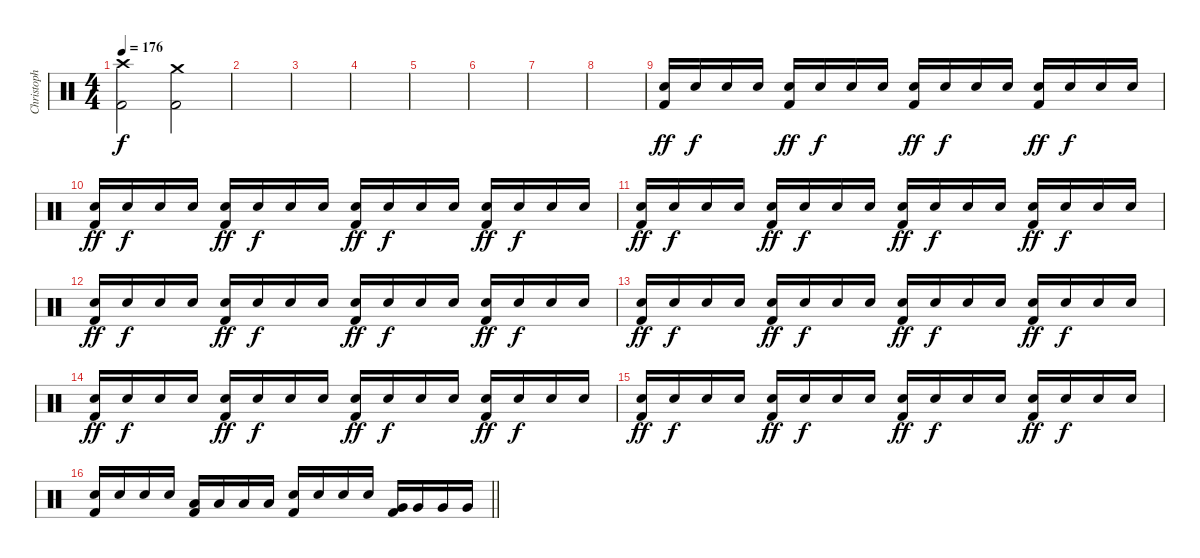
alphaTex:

\track ("Christoph" "Christoph") {instrument percussion}
\staff {score}
\articulation defaults
\ts (4 4)
\tempo 176
\clef neutral
\ks c
("Crash high (hit)" "Kick (hit) 2").2{dy f} ("Crash medium (hit)" "Kick (hit) 2").2 |
|
|
|
|
|
|
|
("Snare (hit) 2" "Kick (hit) 2").16{dy ff volume 7} "Snare (hit) 2".16{dy f} "Snare (hit) 2".16 "Snare (hit) 2".16 ("Snare (hit) 2" "Kick (hit) 2").16{dy ff} "Snare (hit) 2".16{dy f} "Snare (hit) 2".16 "Snare (hit) 2".16 ("Snare (hit) 2" "Kick (hit) 2").16{dy ff} "Snare (hit) 2".16{dy f} "Snare (hit) 2".16 "Snare (hit) 2".16 ("Snare (hit) 2" "Kick (hit) 2").16{dy ff} "Snare (hit) 2".16{dy f} "Snare (hit) 2".16 "Snare (hit) 2".16 |
("Snare (hit) 2" "Kick (hit) 2").16{dy ff volume 9} "Snare (hit) 2".16{dy f} "Snare (hit) 2".16 "Snare (hit) 2".16 ("Snare (hit) 2" "Kick (hit) 2").16{dy ff} "Snare (hit) 2".16{dy f} "Snare (hit) 2".16 "Snare (hit) 2".16 ("Snare (hit) 2" "Kick (hit) 2").16{dy ff} "Snare (hit) 2".16{dy f} "Snare (hit) 2".16 "Snare (hit) 2".16 ("Snare (hit) 2" "Kick (hit) 2").16{dy ff} "Snare (hit) 2".16{dy f} "Snare (hit) 2".16 "Snare (hit) 2".16 |
("Snare (hit) 2" "Kick (hit) 2").16{dy ff} "Snare (hit) 2".16{dy f} "Snare (hit) 2".16 "Snare (hit) 2".16 ("Snare (hit) 2" "Kick (hit) 2").16{dy ff} "Snare (hit) 2".16{dy f} "Snare (hit) 2".16 "Snare (hit) 2".16 ("Snare (hit) 2" "Kick (hit) 2").16{dy ff} "Snare (hit) 2".16{dy f} "Snare (hit) 2".16 "Snare (hit) 2".16 ("Snare (hit) 2" "Kick (hit) 2").16{dy ff} "Snare (hit) 2".16{dy f} "Snare (hit) 2".16 "Snare (hit) 2".16 |
("Snare (hit) 2" "Kick (hit) 2").16{dy ff volume 11} "Snare (hit) 2".16{dy f} "Snare (hit) 2".16 "Snare (hit) 2".16 ("Snare (hit) 2" "Kick (hit) 2").16{dy ff} "Snare (hit) 2".16{dy f} "Snare (hit) 2".16 "Snare (hit) 2".16 ("Snare (hit) 2" "Kick (hit) 2").16{dy ff} "Snare (hit) 2".16{dy f} "Snare (hit) 2".16 "Snare (hit) 2".16 ("Snare (hit) 2" "Kick (hit) 2").16{dy ff} "Snare (hit) 2".16{dy f} "Snare (hit) 2".16 "Snare (hit) 2".16 |
("Snare (hit) 2" "Kick (hit) 2").16{dy ff} "Snare (hit) 2".16{dy f} "Snare (hit) 2".16 "Snare (hit) 2".16 ("Snare (hit) 2" "Kick (hit) 2").16{dy ff} "Snare (hit) 2".16{dy f} "Snare (hit) 2".16 "Snare (hit) 2".16 ("Snare (hit) 2" "Kick (hit) 2").16{dy ff} "Snare (hit) 2".16{dy f} "Snare (hit) 2".16 "Snare (hit) 2".16 ("Snare (hit) 2" "Kick (hit) 2").16{dy ff} "Snare (hit) 2".16{dy f} "Snare (hit) 2".16 "Snare (hit) 2".16 |
("Snare (hit) 2" "Kick (hit) 2").16{dy ff volume 12} "Snare (hit) 2".16{dy f} "Snare (hit) 2".16 "Snare (hit) 2".16 ("Snare (hit) 2" "Kick (hit) 2").16{dy ff} "Snare (hit) 2".16{dy f} "Snare (hit) 2".16 "Snare (hit) 2".16 ("Snare (hit) 2" "Kick (hit) 2").16{dy ff} "Snare (hit) 2".16{dy f} "Snare (hit) 2".16 "Snare (hit) 2".16 ("Snare (hit) 2" "Kick (hit) 2").16{dy ff} "Snare (hit) 2".16{dy f} "Snare (hit) 2".16 "Snare (hit) 2".16 |
("Snare (hit) 2" "Kick (hit) 2").16{dy ff} "Snare (hit) 2".16{dy f} "Snare (hit) 2".16 "Snare (hit) 2".16 ("Snare (hit) 2" "Kick (hit) 2").16{dy ff} "Snare (hit) 2".16{dy f} "Snare (hit) 2".16 "Snare (hit) 2".16 ("Snare (hit) 2" "Kick (hit) 2").16{dy ff volume 14} "Snare (hit) 2".16{dy f} "Snare (hit) 2".16 "Snare (hit) 2".16 ("Snare (hit) 2" "Kick (hit) 2").16{dy ff} "Snare (hit) 2".16{dy f} "Snare (hit) 2".16 "Snare (hit) 2".16 |
\barLineRight lightlight
("Snare (hit) 2" "Kick (hit) 2").16 "Snare (hit) 2".16 "Snare (hit) 2".16 "Snare (hit) 2".16 ("Low Tom (hit)" "Kick (hit) 2").16 "Low Tom (hit)".16 "Low Tom (hit)".16 "Low Tom (hit)".16 ("Snare (hit) 2" "Kick (hit) 2").16 "Snare (hit) 2".16 "Snare (hit) 2".16 "Snare (hit) 2".16 ("Very Low Tom (hit)" "Kick (hit) 2").16 "Very Low Tom (hit)".16 "Very Low Tom (hit)".16 "Very Low Tom (hit)".16
